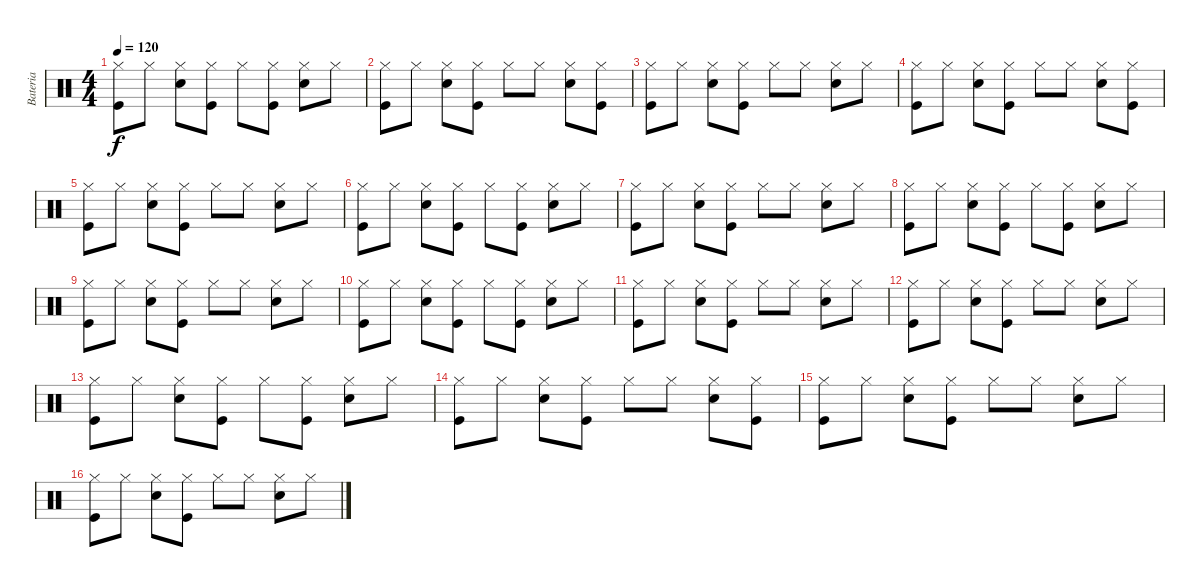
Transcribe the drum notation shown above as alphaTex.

\track ("Bateria" "Bateria") {instrument percussion}
\staff {score}
\articulation defaults
\ts (4 4)
\tempo 120
\clef neutral
\ks c
("Hi-Hat (closed)" "Kick (hit)").8{dy f} "Hi-Hat (closed)".8 ("Hi-Hat (closed)" "Electric Snare (hit)").8 ("Hi-Hat (closed)" "Kick (hit)").8 "Hi-Hat (closed)".8 ("Hi-Hat (closed)" "Kick (hit)").8 ("Hi-Hat (closed)" "Electric Snare (hit)").8 "Hi-Hat (closed)".8 |
("Hi-Hat (closed)" "Kick (hit)").8 "Hi-Hat (closed)".8 ("Hi-Hat (closed)" "Electric Snare (hit)").8 ("Hi-Hat (closed)" "Kick (hit)").8 "Hi-Hat (closed)".8 "Hi-Hat (closed)".8 ("Hi-Hat (closed)" "Electric Snare (hit)").8 ("Hi-Hat (closed)" "Kick (hit)").8 |
("Hi-Hat (closed)" "Kick (hit)").8 "Hi-Hat (closed)".8 ("Hi-Hat (closed)" "Electric Snare (hit)").8 ("Hi-Hat (closed)" "Kick (hit)").8 "Hi-Hat (closed)".8 "Hi-Hat (closed)".8 ("Hi-Hat (closed)" "Electric Snare (hit)").8 "Hi-Hat (closed)".8 |
("Hi-Hat (closed)" "Kick (hit)").8 "Hi-Hat (closed)".8 ("Hi-Hat (closed)" "Electric Snare (hit)").8 ("Hi-Hat (closed)" "Kick (hit)").8 "Hi-Hat (closed)".8 "Hi-Hat (closed)".8 ("Hi-Hat (closed)" "Electric Snare (hit)").8 ("Hi-Hat (closed)" "Kick (hit)").8 |
("Hi-Hat (closed)" "Kick (hit)").8 "Hi-Hat (closed)".8 ("Hi-Hat (closed)" "Electric Snare (hit)").8 ("Hi-Hat (closed)" "Kick (hit)").8 "Hi-Hat (closed)".8 "Hi-Hat (closed)".8 ("Hi-Hat (closed)" "Electric Snare (hit)").8 "Hi-Hat (closed)".8 |
("Hi-Hat (closed)" "Kick (hit)").8 "Hi-Hat (closed)".8 ("Hi-Hat (closed)" "Electric Snare (hit)").8 ("Hi-Hat (closed)" "Kick (hit)").8 "Hi-Hat (closed)".8 ("Hi-Hat (closed)" "Kick (hit)").8 ("Hi-Hat (closed)" "Electric Snare (hit)").8 "Hi-Hat (closed)".8 |
("Hi-Hat (closed)" "Kick (hit)").8 "Hi-Hat (closed)".8 ("Hi-Hat (closed)" "Electric Snare (hit)").8 ("Hi-Hat (closed)" "Kick (hit)").8 "Hi-Hat (closed)".8 "Hi-Hat (closed)".8 ("Hi-Hat (closed)" "Electric Snare (hit)").8 "Hi-Hat (closed)".8 |
("Hi-Hat (closed)" "Kick (hit)").8 "Hi-Hat (closed)".8 ("Hi-Hat (closed)" "Electric Snare (hit)").8 ("Hi-Hat (closed)" "Kick (hit)").8 "Hi-Hat (closed)".8 ("Hi-Hat (closed)" "Kick (hit)").8 ("Hi-Hat (closed)" "Electric Snare (hit)").8 "Hi-Hat (closed)".8 |
("Hi-Hat (closed)" "Kick (hit)").8 "Hi-Hat (closed)".8 ("Hi-Hat (closed)" "Electric Snare (hit)").8 ("Hi-Hat (closed)" "Kick (hit)").8 "Hi-Hat (closed)".8 "Hi-Hat (closed)".8 ("Hi-Hat (closed)" "Electric Snare (hit)").8 "Hi-Hat (closed)".8 |
("Hi-Hat (closed)" "Kick (hit)").8 "Hi-Hat (closed)".8 ("Hi-Hat (closed)" "Electric Snare (hit)").8 ("Hi-Hat (closed)" "Kick (hit)").8 "Hi-Hat (closed)".8 ("Hi-Hat (closed)" "Kick (hit)").8 ("Hi-Hat (closed)" "Electric Snare (hit)").8 "Hi-Hat (closed)".8 |
("Hi-Hat (closed)" "Kick (hit)").8 "Hi-Hat (closed)".8 ("Hi-Hat (closed)" "Electric Snare (hit)").8 ("Hi-Hat (closed)" "Kick (hit)").8 "Hi-Hat (closed)".8 "Hi-Hat (closed)".8 ("Hi-Hat (closed)" "Electric Snare (hit)").8 "Hi-Hat (closed)".8 |
("Hi-Hat (closed)" "Kick (hit)").8 "Hi-Hat (closed)".8 ("Hi-Hat (closed)" "Electric Snare (hit)").8 ("Hi-Hat (closed)" "Kick (hit)").8 "Hi-Hat (closed)".8 "Hi-Hat (closed)".8 ("Hi-Hat (closed)" "Electric Snare (hit)").8 "Hi-Hat (closed)".8 |
("Hi-Hat (closed)" "Kick (hit)").8 "Hi-Hat (closed)".8 ("Hi-Hat (closed)" "Electric Snare (hit)").8 ("Hi-Hat (closed)" "Kick (hit)").8 "Hi-Hat (closed)".8 ("Hi-Hat (closed)" "Kick (hit)").8 ("Hi-Hat (closed)" "Electric Snare (hit)").8 "Hi-Hat (closed)".8 |
("Hi-Hat (closed)" "Kick (hit)").8 "Hi-Hat (closed)".8 ("Hi-Hat (closed)" "Electric Snare (hit)").8 ("Hi-Hat (closed)" "Kick (hit)").8 "Hi-Hat (closed)".8 "Hi-Hat (closed)".8 ("Hi-Hat (closed)" "Electric Snare (hit)").8 ("Hi-Hat (closed)" "Kick (hit)").8 |
("Hi-Hat (closed)" "Kick (hit)").8 "Hi-Hat (closed)".8 ("Hi-Hat (closed)" "Electric Snare (hit)").8 ("Hi-Hat (closed)" "Kick (hit)").8 "Hi-Hat (closed)".8 "Hi-Hat (closed)".8 ("Hi-Hat (closed)" "Electric Snare (hit)").8 "Hi-Hat (closed)".8 |
("Hi-Hat (closed)" "Kick (hit)").8 "Hi-Hat (closed)".8 ("Hi-Hat (closed)" "Electric Snare (hit)").8 ("Hi-Hat (closed)" "Kick (hit)").8 "Hi-Hat (closed)".8 "Hi-Hat (closed)".8 ("Hi-Hat (closed)" "Electric Snare (hit)").8 "Hi-Hat (closed)".8
